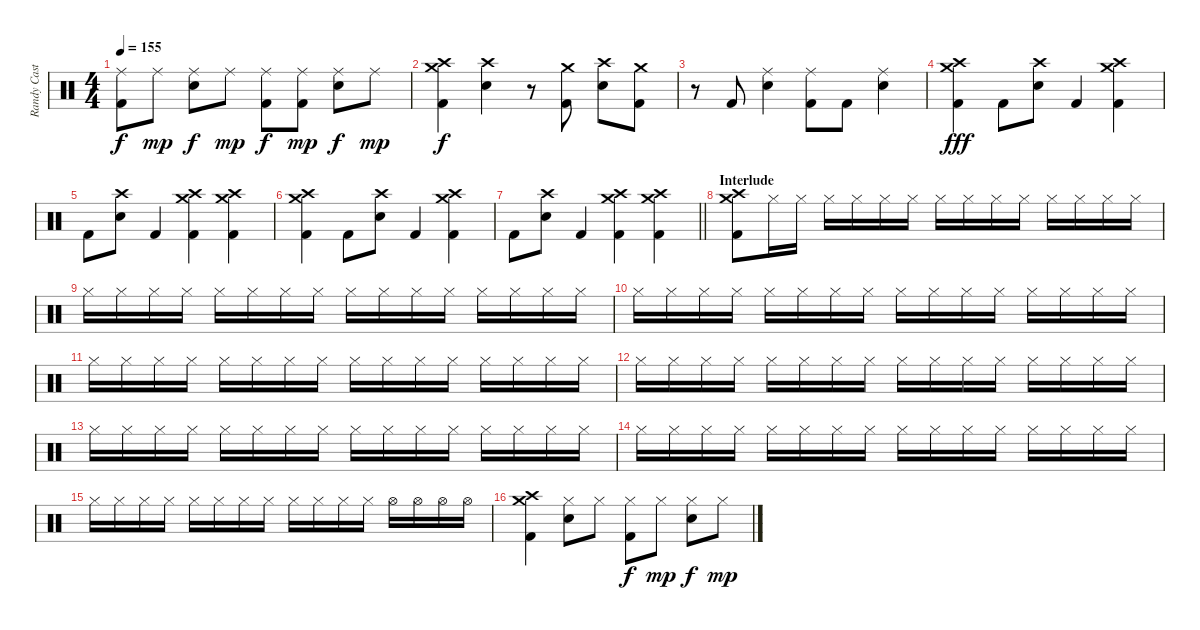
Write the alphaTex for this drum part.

\track ("Randy Castillo - Drums" "Randy Cast") {instrument percussion}
\staff {score}
\articulation defaults
\ts (4 4)
\tempo 155
\clef neutral
\ks c
("Ride (middle)" "Kick (hit) 2").8{dy f} "Ride (middle)".8{dy mp} ("Ride (middle)" "Snare (hit) 2").8{dy f} "Ride (middle)".8{dy mp} ("Ride (middle)" "Kick (hit) 2").8{dy f} ("Ride (middle)" "Kick (hit) 2").8{dy mp} ("Ride (middle)" "Snare (hit) 2").8{dy f} "Ride (middle)".8{dy mp} |
("Crash medium (hit)" "Crash high (hit)" "Kick (hit) 2").4{dy f} ("Crash high (hit)" "Snare (hit) 2").4 r.8 ("Crash medium (hit)" "Kick (hit) 2").8 ("Crash high (hit)" "Snare (hit) 2").8 ("Crash medium (hit)" "Kick (hit) 2").8 |
r.8 "Kick (hit) 2".8 ("Ride (middle)" "Snare (hit) 2").4 ("Ride (middle)" "Kick (hit) 2").8 "Kick (hit) 2".8 ("Ride (middle)" "Snare (hit) 2").4 |
("Crash medium (hit)" "Crash high (hit)" "Kick (hit) 2").4{dy fff} "Kick (hit) 2".8 ("Crash high (hit)" "Snare (hit) 2").8 "Kick (hit) 2".4 ("Crash medium (hit)" "Crash high (hit)" "Kick (hit) 2").4 |
"Kick (hit) 2".8 ("Crash high (hit)" "Snare (hit) 2").8 "Kick (hit) 2".4 ("Crash medium (hit)" "Crash high (hit)" "Kick (hit) 2").4 ("Crash high (hit)" "Crash medium (hit)" "Kick (hit) 2").4 |
("Crash medium (hit)" "Crash high (hit)" "Kick (hit) 2").4 "Kick (hit) 2".8 ("Crash high (hit)" "Snare (hit) 2").8 "Kick (hit) 2".4 ("Crash medium (hit)" "Crash high (hit)" "Kick (hit) 2").4 |
\barLineRight lightlight "Kick (hit) 2".8
("Crash high (hit)" "Snare (hit) 2").8 "Kick (hit) 2".4 ("Crash medium (hit)" "Crash high (hit)" "Kick (hit) 2").4 ("Crash high (hit)" "Crash medium (hit)" "Kick (hit) 2").4 |
\section ("" "Interlude")
("Crash medium (hit)" "Crash high (hit)" "Kick (hit) 2").8 "Hi-Hat (closed)".16 "Hi-Hat (closed)".16 "Hi-Hat (closed)".16 "Hi-Hat (closed)".16 "Hi-Hat (closed)".16 "Hi-Hat (closed)".16 "Hi-Hat (closed)".16 "Hi-Hat (closed)".16 "Hi-Hat (closed)".16 "Hi-Hat (closed)".16 "Hi-Hat (closed)".16 "Hi-Hat (closed)".16 "Hi-Hat (closed)".16 "Hi-Hat (closed)".16 |
"Hi-Hat (closed)".16 "Hi-Hat (closed)".16 "Hi-Hat (closed)".16 "Hi-Hat (closed)".16 "Hi-Hat (closed)".16 "Hi-Hat (closed)".16 "Hi-Hat (closed)".16 "Hi-Hat (closed)".16 "Hi-Hat (closed)".16 "Hi-Hat (closed)".16 "Hi-Hat (closed)".16 "Hi-Hat (closed)".16 "Hi-Hat (closed)".16 "Hi-Hat (closed)".16 "Hi-Hat (closed)".16 "Hi-Hat (closed)".16 |
"Hi-Hat (closed)".16 "Hi-Hat (closed)".16 "Hi-Hat (closed)".16 "Hi-Hat (closed)".16 "Hi-Hat (closed)".16 "Hi-Hat (closed)".16 "Hi-Hat (closed)".16 "Hi-Hat (closed)".16 "Hi-Hat (closed)".16 "Hi-Hat (closed)".16 "Hi-Hat (closed)".16 "Hi-Hat (closed)".16 "Hi-Hat (closed)".16 "Hi-Hat (closed)".16 "Hi-Hat (closed)".16 "Hi-Hat (closed)".16 |
"Hi-Hat (closed)".16 "Hi-Hat (closed)".16 "Hi-Hat (closed)".16 "Hi-Hat (closed)".16 "Hi-Hat (closed)".16 "Hi-Hat (closed)".16 "Hi-Hat (closed)".16 "Hi-Hat (closed)".16 "Hi-Hat (closed)".16 "Hi-Hat (closed)".16 "Hi-Hat (closed)".16 "Hi-Hat (closed)".16 "Hi-Hat (closed)".16 "Hi-Hat (closed)".16 "Hi-Hat (closed)".16 "Hi-Hat (closed)".16 |
"Hi-Hat (closed)".16 "Hi-Hat (closed)".16 "Hi-Hat (closed)".16 "Hi-Hat (closed)".16 "Hi-Hat (closed)".16 "Hi-Hat (closed)".16 "Hi-Hat (closed)".16 "Hi-Hat (closed)".16 "Hi-Hat (closed)".16 "Hi-Hat (closed)".16 "Hi-Hat (closed)".16 "Hi-Hat (closed)".16 "Hi-Hat (closed)".16 "Hi-Hat (closed)".16 "Hi-Hat (closed)".16 "Hi-Hat (closed)".16 |
"Hi-Hat (closed)".16 "Hi-Hat (closed)".16 "Hi-Hat (closed)".16 "Hi-Hat (closed)".16 "Hi-Hat (closed)".16 "Hi-Hat (closed)".16 "Hi-Hat (closed)".16 "Hi-Hat (closed)".16 "Hi-Hat (closed)".16 "Hi-Hat (closed)".16 "Hi-Hat (closed)".16 "Hi-Hat (closed)".16 "Hi-Hat (closed)".16 "Hi-Hat (closed)".16 "Hi-Hat (closed)".16 "Hi-Hat (closed)".16 |
"Hi-Hat (closed)".16 "Hi-Hat (closed)".16 "Hi-Hat (closed)".16 "Hi-Hat (closed)".16 "Hi-Hat (closed)".16 "Hi-Hat (closed)".16 "Hi-Hat (closed)".16 "Hi-Hat (closed)".16 "Hi-Hat (closed)".16 "Hi-Hat (closed)".16 "Hi-Hat (closed)".16 "Hi-Hat (closed)".16 "Hi-Hat (closed)".16 "Hi-Hat (closed)".16 "Hi-Hat (closed)".16 "Hi-Hat (closed)".16 |
"Hi-Hat (closed)".16 "Hi-Hat (closed)".16 "Hi-Hat (closed)".16 "Hi-Hat (closed)".16 "Hi-Hat (closed)".16 "Hi-Hat (closed)".16 "Hi-Hat (closed)".16 "Hi-Hat (closed)".16 "Hi-Hat (closed)".16 "Hi-Hat (closed)".16 "Hi-Hat (closed)".16 "Hi-Hat (closed)".16 "Hi-Hat (open)".16 "Hi-Hat (open)".16 "Hi-Hat (open)".16 "Hi-Hat (open)".16 |
("Crash medium (hit)" "Crash high (hit)" "Kick (hit) 2").4 ("Hi-Hat (closed)" "Snare (hit) 2").8 "Hi-Hat (closed)".8 ("Hi-Hat (closed)" "Kick (hit) 2").8{dy f} "Hi-Hat (closed)".8{dy mp} ("Hi-Hat (closed)" "Snare (hit) 2").8{dy f} "Hi-Hat (closed)".8{dy mp}
